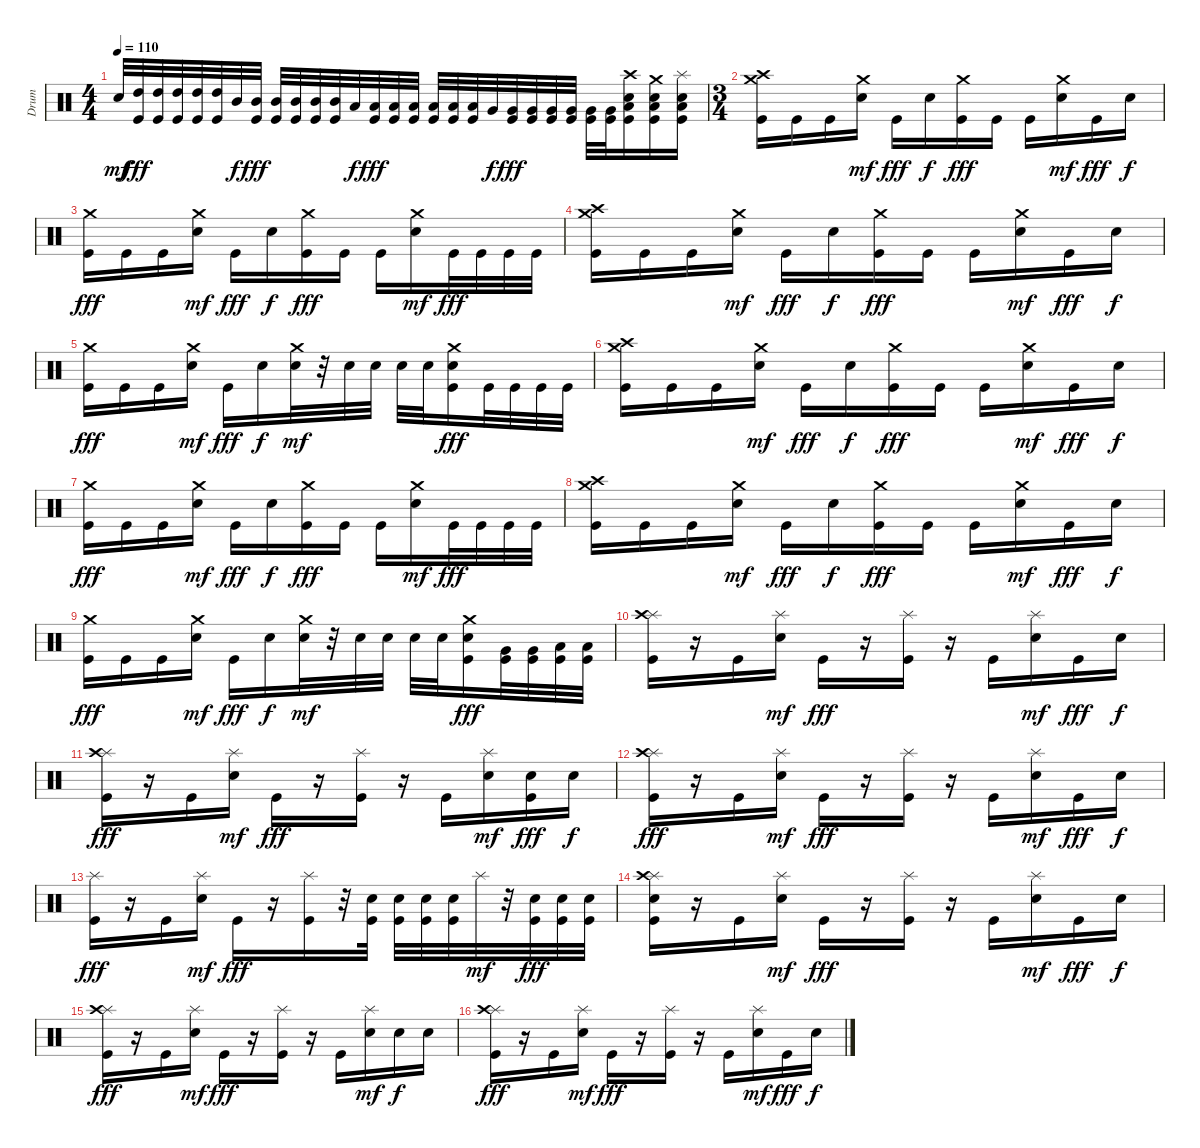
\track ("Drum" "Drum") {instrument percussion}
\staff {score}
\articulation defaults
\ts (4 4)
\tempo 110
\clef neutral
\ks c "Electric Snare (hit)".32{dy mf}
("High Tom (hit)" "Kick (hit)").32{dy fff} ("High Tom (hit)" "Kick (hit)").32 ("High Tom (hit)" "Kick (hit)").32 ("High Tom (hit)" "Kick (hit)").32 ("High Tom (hit)" "Kick (hit)").32 "Mid Tom (hit)".32{dy f} ("Mid Tom (hit)" "Kick (hit)").32{dy fff} ("Mid Tom (hit)" "Kick (hit)").32 ("Mid Tom (hit)" "Kick (hit)").32 ("Mid Tom (hit)" "Kick (hit)").32 ("Mid Tom (hit)" "Kick (hit)").32 "Low Tom (hit)".32{dy f} ("Low Tom (hit)" "Kick (hit)").32{dy fff} ("Low Tom (hit)" "Kick (hit)").32 ("Low Tom (hit)" "Kick (hit)").32 ("Low Tom (hit)" "Kick (hit)").32 ("Low Tom (hit)" "Kick (hit)").32 ("Low Tom (hit)" "Kick (hit)").32 "Very Low Tom (hit)".32{dy f} ("Very Low Tom (hit)" "Kick (hit)").32{dy fff} ("Very Low Tom (hit)" "Kick (hit)").32 ("Very Low Tom (hit)" "Kick (hit)").32 ("Very Low Tom (hit)" "Kick (hit)").32 ("Very Low Tom (hit)" "Kick (hit)").32 ("Very Low Tom (hit)" "Kick (hit)").32 ("Crash high (hit)" "Low Floor Tom (hit)" "Electric Snare (hit)" "Kick (hit)").16 ("Crash medium (hit)" "Low Floor Tom (hit)" "Electric Snare (hit)" "Kick (hit)").16 ("Splash (hit)" "Low Floor Tom (hit)" "Electric Snare (hit)" "Kick (hit)").16 |
\ts (3 4)
("Crash medium (hit)" "Crash high (hit)" "Kick (hit)").16 "Kick (hit)".16 "Kick (hit)".16 ("Crash medium (hit)" "Electric Snare (hit)").16{dy mf} "Kick (hit)".16{dy fff} "Electric Snare (hit)".16{dy f} ("Crash medium (hit)" "Kick (hit)").16{dy fff} "Kick (hit)".16 "Kick (hit)".16 ("Crash medium (hit)" "Electric Snare (hit)").16{dy mf} "Kick (hit)".16{dy fff} "Electric Snare (hit)".16{dy f} |
("Crash medium (hit)" "Kick (hit)").16{dy fff} "Kick (hit)".16 "Kick (hit)".16 ("Crash medium (hit)" "Electric Snare (hit)").16{dy mf} "Kick (hit)".16{dy fff} "Electric Snare (hit)".16{dy f} ("Crash medium (hit)" "Kick (hit)").16{dy fff} "Kick (hit)".16 "Kick (hit)".16 ("Crash medium (hit)" "Electric Snare (hit)").16{dy mf} "Kick (hit)".32{dy fff} "Kick (hit)".32 "Kick (hit)".32 "Kick (hit)".32 |
("Crash medium (hit)" "Crash high (hit)" "Kick (hit)").16 "Kick (hit)".16 "Kick (hit)".16 ("Crash medium (hit)" "Electric Snare (hit)").16{dy mf} "Kick (hit)".16{dy fff} "Electric Snare (hit)".16{dy f} ("Crash medium (hit)" "Kick (hit)").16{dy fff} "Kick (hit)".16 "Kick (hit)".16 ("Crash medium (hit)" "Electric Snare (hit)").16{dy mf} "Kick (hit)".16{dy fff} "Electric Snare (hit)".16{dy f} |
("Crash medium (hit)" "Kick (hit)").16{dy fff} "Kick (hit)".16 "Kick (hit)".16 ("Crash medium (hit)" "Electric Snare (hit)").16{dy mf} "Kick (hit)".16{dy fff} "Electric Snare (hit)".16{dy f} ("Crash medium (hit)" "Electric Snare (hit)").32{dy mf} r.32 "Electric Snare (hit)".32 "Electric Snare (hit)".32 "Electric Snare (hit)".32 "Electric Snare (hit)".32 ("Crash medium (hit)" "Electric Snare (hit)" "Kick (hit)").16{dy fff} "Kick (hit)".32 "Kick (hit)".32 "Kick (hit)".32 "Kick (hit)".32 |
("Crash medium (hit)" "Crash high (hit)" "Kick (hit)").16 "Kick (hit)".16 "Kick (hit)".16 ("Crash medium (hit)" "Electric Snare (hit)").16{dy mf} "Kick (hit)".16{dy fff} "Electric Snare (hit)".16{dy f} ("Crash medium (hit)" "Kick (hit)").16{dy fff} "Kick (hit)".16 "Kick (hit)".16 ("Crash medium (hit)" "Electric Snare (hit)").16{dy mf} "Kick (hit)".16{dy fff} "Electric Snare (hit)".16{dy f} |
("Crash medium (hit)" "Kick (hit)").16{dy fff} "Kick (hit)".16 "Kick (hit)".16 ("Crash medium (hit)" "Electric Snare (hit)").16{dy mf} "Kick (hit)".16{dy fff} "Electric Snare (hit)".16{dy f} ("Crash medium (hit)" "Kick (hit)").16{dy fff} "Kick (hit)".16 "Kick (hit)".16 ("Crash medium (hit)" "Electric Snare (hit)").16{dy mf} "Kick (hit)".32{dy fff} "Kick (hit)".32 "Kick (hit)".32 "Kick (hit)".32 |
("Crash medium (hit)" "Crash high (hit)" "Kick (hit)").16 "Kick (hit)".16 "Kick (hit)".16 ("Crash medium (hit)" "Electric Snare (hit)").16{dy mf} "Kick (hit)".16{dy fff} "Electric Snare (hit)".16{dy f} ("Crash medium (hit)" "Kick (hit)").16{dy fff} "Kick (hit)".16 "Kick (hit)".16 ("Crash medium (hit)" "Electric Snare (hit)").16{dy mf} "Kick (hit)".16{dy fff} "Electric Snare (hit)".16{dy f} |
("Crash medium (hit)" "Kick (hit)").16{dy fff} "Kick (hit)".16 "Kick (hit)".16 ("Crash medium (hit)" "Electric Snare (hit)").16{dy mf} "Kick (hit)".16{dy fff} "Electric Snare (hit)".16{dy f} ("Crash medium (hit)" "Electric Snare (hit)").32{dy mf} r.32 "Electric Snare (hit)".32 "Electric Snare (hit)".32 "Electric Snare (hit)".32 "Electric Snare (hit)".32 ("Crash medium (hit)" "Electric Snare (hit)" "Kick (hit)").16{dy fff} ("Very Low Tom (hit)" "Kick (hit)").32 ("Very Low Tom (hit)" "Kick (hit)").32 ("Low Floor Tom (hit)" "Kick (hit)").32 ("Low Floor Tom (hit)" "Kick (hit)").32 |
("Splash (hit)" "Crash high (hit)" "Kick (hit)").16 r.16 "Kick (hit)".16 ("Splash (hit)" "Electric Snare (hit)").16{dy mf} "Kick (hit)".16{dy fff} r.16 ("Splash (hit)" "Kick (hit)").16 r.16 "Kick (hit)".16 ("Splash (hit)" "Electric Snare (hit)").16{dy mf} "Kick (hit)".16{dy fff} "Electric Snare (hit)".16{dy f} |
("Splash (hit)" "Crash high (hit)" "Kick (hit)").16{dy fff} r.16 "Kick (hit)".16 ("Splash (hit)" "Electric Snare (hit)").16{dy mf} "Kick (hit)".16{dy fff} r.16 ("Splash (hit)" "Kick (hit)").16 r.16 "Kick (hit)".16 ("Splash (hit)" "Electric Snare (hit)").16{dy mf} ("Electric Snare (hit)" "Kick (hit)").16{dy fff} "Electric Snare (hit)".16{dy f} |
("Splash (hit)" "Crash high (hit)" "Kick (hit)").16{dy fff} r.16 "Kick (hit)".16 ("Splash (hit)" "Electric Snare (hit)").16{dy mf} "Kick (hit)".16{dy fff} r.16 ("Splash (hit)" "Kick (hit)").16 r.16 "Kick (hit)".16 ("Splash (hit)" "Electric Snare (hit)").16{dy mf} "Kick (hit)".16{dy fff} "Electric Snare (hit)".16{dy f} |
("Splash (hit)" "Kick (hit)").16{dy fff} r.16 "Kick (hit)".16 ("Splash (hit)" "Electric Snare (hit)").16{dy mf} "Kick (hit)".16{dy fff} r.16 ("Splash (hit)" "Kick (hit)").16 r.32 ("Electric Snare (hit)" "Kick (hit)").32 ("Electric Snare (hit)" "Kick (hit)").32 ("Electric Snare (hit)" "Kick (hit)").32 ("Electric Snare (hit)" "Kick (hit)").32 "Splash (hit)".32{dy mf} r.32 ("Electric Snare (hit)" "Kick (hit)").32{dy fff} ("Electric Snare (hit)" "Kick (hit)").32 ("Electric Snare (hit)" "Kick (hit)").32 |
("Splash (hit)" "Crash high (hit)" "Electric Snare (hit)" "Kick (hit)").16 r.16 "Kick (hit)".16 ("Splash (hit)" "Electric Snare (hit)").16{dy mf} "Kick (hit)".16{dy fff} r.16 ("Splash (hit)" "Kick (hit)").16 r.16 "Kick (hit)".16 ("Splash (hit)" "Electric Snare (hit)").16{dy mf} "Kick (hit)".16{dy fff} "Electric Snare (hit)".16{dy f} |
("Splash (hit)" "Crash high (hit)" "Kick (hit)").16{dy fff} r.16 "Kick (hit)".16 ("Splash (hit)" "Electric Snare (hit)").16{dy mf} "Kick (hit)".16{dy fff} r.16 ("Splash (hit)" "Kick (hit)").16 r.16 "Kick (hit)".16 ("Splash (hit)" "Electric Snare (hit)").16{dy mf} "Electric Snare (hit)".16{dy f} "Electric Snare (hit)".16 |
("Splash (hit)" "Crash high (hit)" "Kick (hit)").16{dy fff} r.16 "Kick (hit)".16 ("Splash (hit)" "Electric Snare (hit)").16{dy mf} "Kick (hit)".16{dy fff} r.16 ("Splash (hit)" "Kick (hit)").16 r.16 "Kick (hit)".16 ("Splash (hit)" "Electric Snare (hit)").16{dy mf} "Kick (hit)".16{dy fff} "Electric Snare (hit)".16{dy f}
